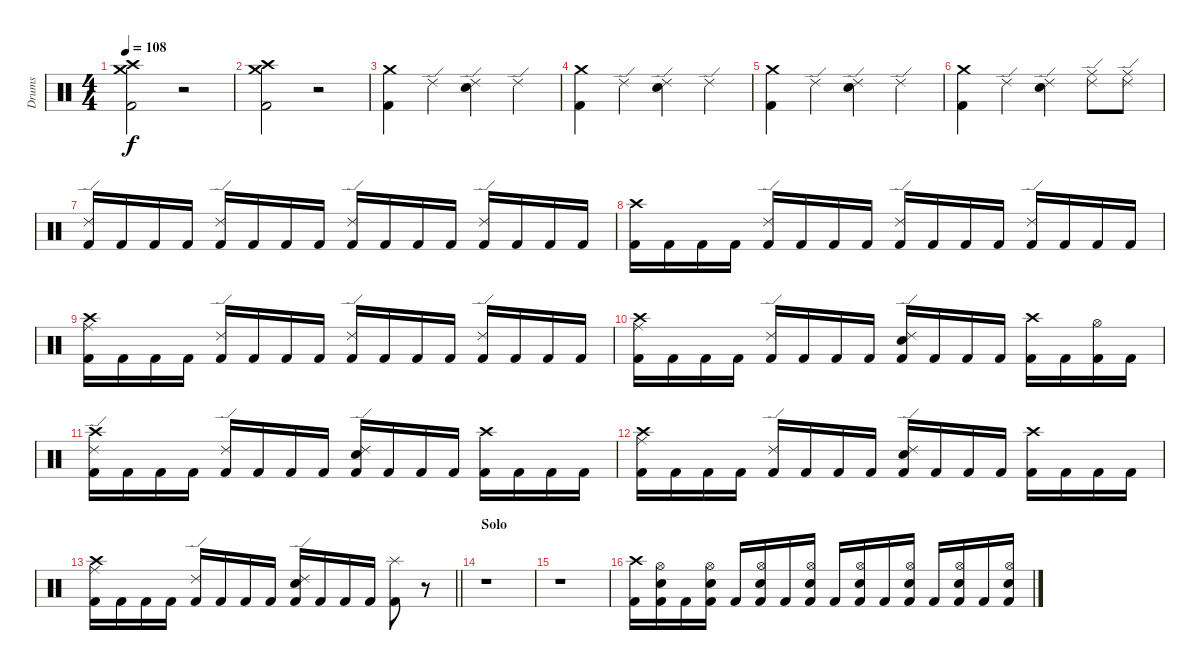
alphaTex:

\track ("Drums" "Drums") {instrument percussion}
\staff {score}
\articulation defaults
\ts (4 4)
\tempo 108
\clef neutral
\ks c
("Crash medium (hit)" "Crash high (hit)" "Kick (hit) 2").2{dy f} r.2 |
("Crash medium (hit)" "Crash high (hit)" "Kick (hit) 2").2 r.2 |
("Crash medium (hit)" "Kick (hit) 2").4 "Ride (edge) 2".4 ("Ride (edge) 2" "Electric Snare (hit)").4 "Ride (edge) 2".4 |
("Crash medium (hit)" "Kick (hit) 2").4 "Ride (edge) 2".4 ("Ride (edge) 2" "Electric Snare (hit)").4 "Ride (edge) 2".4 |
("Crash medium (hit)" "Kick (hit) 2").4 "Ride (edge) 2".4 ("Ride (edge) 2" "Electric Snare (hit)").4 "Ride (edge) 2".4 |
("Crash medium (hit)" "Kick (hit) 2").4 "Ride (edge) 2".4 ("Ride (edge) 2" "Electric Snare (hit)").4 ("Ride (middle)" "Ride (edge) 2").8 ("Ride (middle)" "Ride (edge) 2").8 |
("Ride (edge) 2" "Kick (hit) 2").16 "Kick (hit) 2".16 "Kick (hit) 2".16 "Kick (hit) 2".16 ("Ride (edge) 2" "Kick (hit) 2").16 "Kick (hit) 2".16 "Kick (hit) 2".16 "Kick (hit) 2".16 ("Ride (edge) 2" "Kick (hit) 2").16 "Kick (hit) 2".16 "Kick (hit) 2".16 "Kick (hit) 2".16 ("Ride (edge) 2" "Kick (hit) 2").16 "Kick (hit) 2".16 "Kick (hit) 2".16 "Kick (hit) 2".16 |
("Crash high (hit)" "Kick (hit) 2").16 "Kick (hit) 2".16 "Kick (hit) 2".16 "Kick (hit) 2".16 ("Ride (edge) 2" "Kick (hit) 2").16 "Kick (hit) 2".16 "Kick (hit) 2".16 "Kick (hit) 2".16 ("Ride (edge) 2" "Kick (hit) 2").16 "Kick (hit) 2".16 "Kick (hit) 2".16 "Kick (hit) 2".16 ("Ride (edge) 2" "Kick (hit) 2").16 "Kick (hit) 2".16 "Kick (hit) 2".16 "Kick (hit) 2".16 |
("Crash high (hit)" "Ride (middle)" "Kick (hit) 2").16 "Kick (hit) 2".16 "Kick (hit) 2".16 "Kick (hit) 2".16 ("Ride (edge) 2" "Kick (hit) 2").16 "Kick (hit) 2".16 "Kick (hit) 2".16 "Kick (hit) 2".16 ("Ride (edge) 2" "Kick (hit) 2").16 "Kick (hit) 2".16 "Kick (hit) 2".16 "Kick (hit) 2".16 ("Ride (edge) 2" "Kick (hit) 2").16 "Kick (hit) 2".16 "Kick (hit) 2".16 "Kick (hit) 2".16 |
("Crash high (hit)" "Ride (middle)" "Kick (hit) 2").16 "Kick (hit) 2".16 "Kick (hit) 2".16 "Kick (hit) 2".16 ("Ride (edge) 2" "Kick (hit) 2").16 "Kick (hit) 2".16 "Kick (hit) 2".16 "Kick (hit) 2".16 ("Ride (edge) 2" "Electric Snare (hit)" "Kick (hit) 2").16 "Kick (hit) 2".16 "Kick (hit) 2".16 "Kick (hit) 2".16 ("Crash high (hit)" "Kick (hit) 2").16 "Kick (hit) 2".16 ("Hi-Hat (open)" "Kick (hit) 2").16 "Kick (hit) 2".16 |
("Ride (edge) 2" "Crash high (hit)" "Kick (hit) 2").16 "Kick (hit) 2".16 "Kick (hit) 2".16 "Kick (hit) 2".16 ("Ride (edge) 2" "Kick (hit) 2").16 "Kick (hit) 2".16 "Kick (hit) 2".16 "Kick (hit) 2".16 ("Ride (edge) 2" "Electric Snare (hit)" "Kick (hit) 2").16 "Kick (hit) 2".16 "Kick (hit) 2".16 "Kick (hit) 2".16 ("Crash high (hit)" "Kick (hit) 2").16 "Kick (hit) 2".16 "Kick (hit) 2".16 "Kick (hit) 2".16 |
("Crash high (hit)" "Ride (middle)" "Kick (hit) 2").16 "Kick (hit) 2".16 "Kick (hit) 2".16 "Kick (hit) 2".16 ("Ride (edge) 2" "Kick (hit) 2").16 "Kick (hit) 2".16 "Kick (hit) 2".16 "Kick (hit) 2".16 ("Ride (edge) 2" "Electric Snare (hit)" "Kick (hit) 2").16 "Kick (hit) 2".16 "Kick (hit) 2".16 "Kick (hit) 2".16 ("Crash high (hit)" "Kick (hit) 2").16 "Kick (hit) 2".16 "Kick (hit) 2".16 "Kick (hit) 2".16 |
\barLineRight lightlight
("Crash high (hit)" "Ride (middle)" "Kick (hit) 2").16 "Kick (hit) 2".16 "Kick (hit) 2".16 "Kick (hit) 2".16 ("Ride (edge) 2" "Kick (hit) 2").16 "Kick (hit) 2".16 "Kick (hit) 2".16 "Kick (hit) 2".16 ("Ride (edge) 2" "Electric Snare (hit)" "Kick (hit) 2").16 "Kick (hit) 2".16 "Kick (hit) 2".16 "Kick (hit) 2".16 ("Splash (hit)" "Kick (hit) 2").8 r.8 |
\section ("" "Solo")
r.1 |
r.1 |
("Crash high (hit)" "Kick (hit) 2").16 ("Hi-Hat (open)" "Snare (hit) 2" "Kick (hit) 2").16 "Kick (hit) 2".16 ("Hi-Hat (open)" "Snare (hit) 2" "Kick (hit) 2").16 "Kick (hit) 2".16 ("Hi-Hat (open)" "Snare (hit) 2" "Kick (hit) 2").16 "Kick (hit) 2".16 ("Hi-Hat (open)" "Snare (hit) 2" "Kick (hit) 2").16 "Kick (hit) 2".16 ("Hi-Hat (open)" "Snare (hit) 2" "Kick (hit) 2").16 "Kick (hit) 2".16 ("Hi-Hat (open)" "Snare (hit) 2" "Kick (hit) 2").16 "Kick (hit) 2".16 ("Hi-Hat (open)" "Snare (hit) 2" "Kick (hit) 2").16 "Kick (hit) 2".16 ("Hi-Hat (open)" "Snare (hit) 2" "Kick (hit) 2").16
